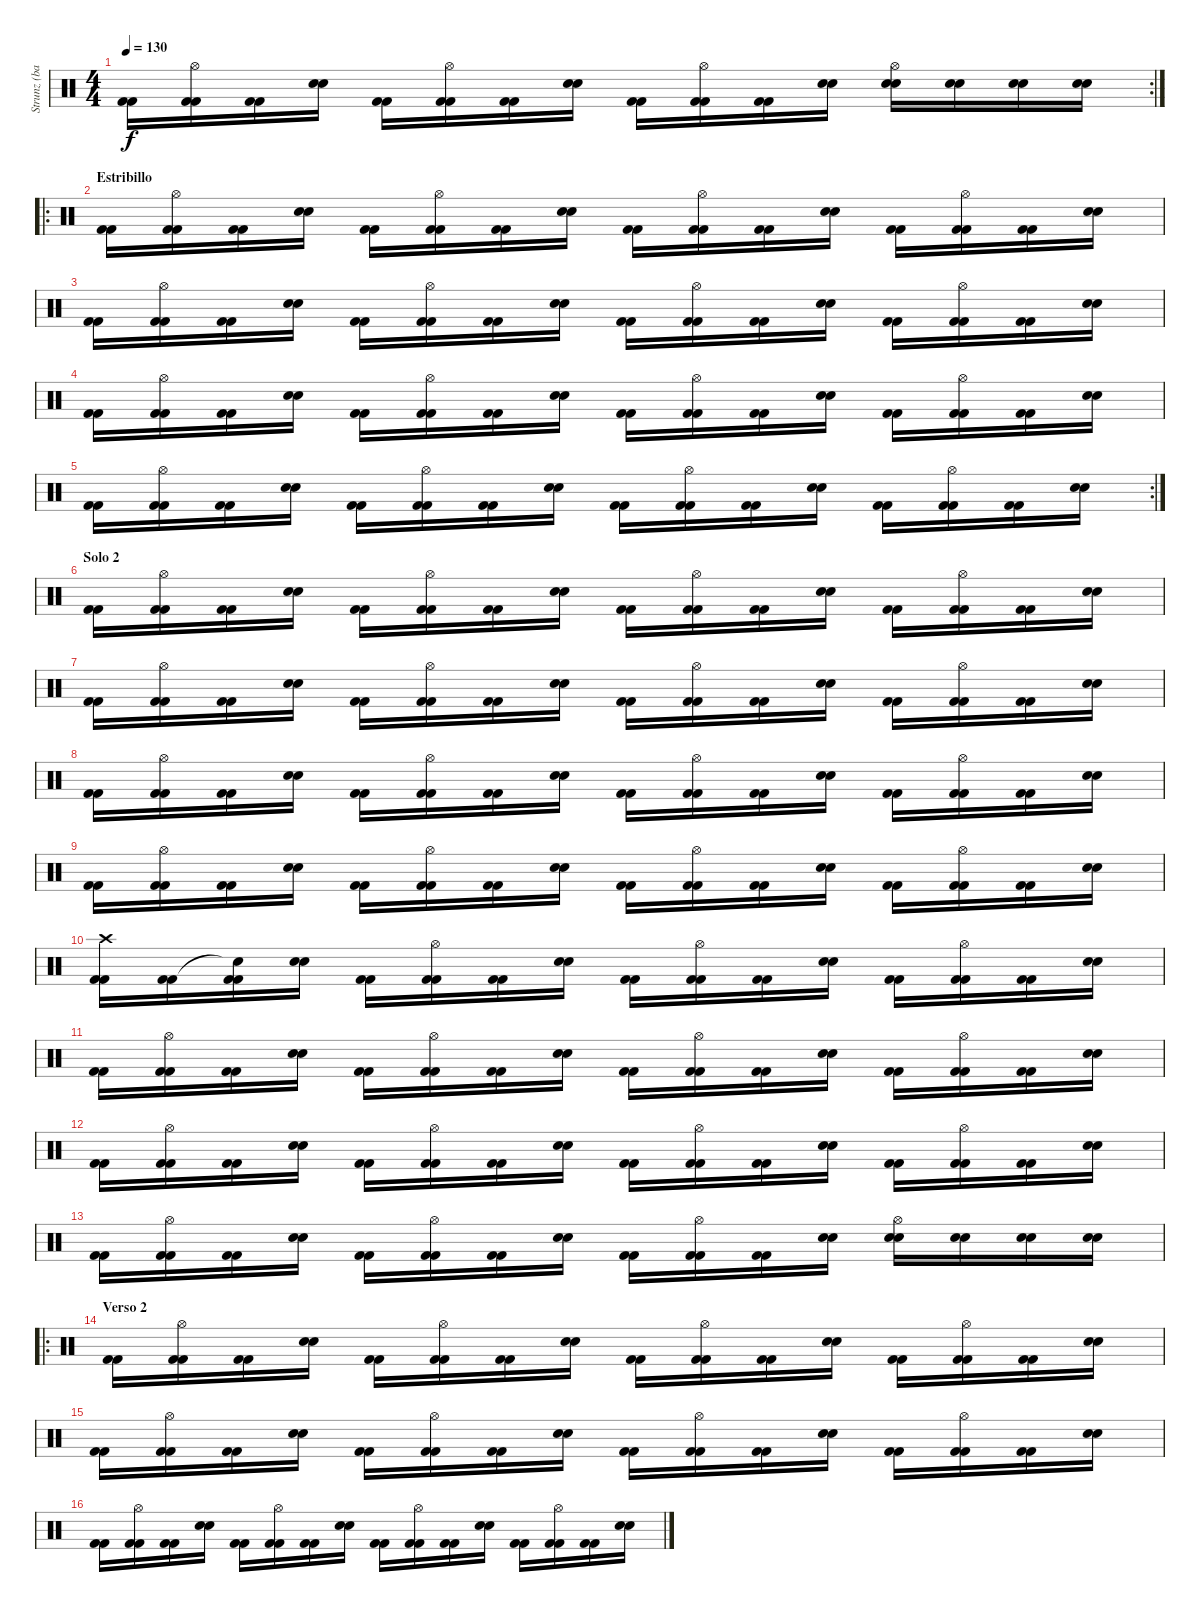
\track ("Strunz (bateria)" "Strunz (ba") {instrument percussion}
\staff {score}
\articulation defaults
\rc 2
\ts (4 4)
\tempo 130
\clef neutral
\ks c
("Kick (hit) 2" "Kick (hit) 2").16{dy f} ("Hi-Hat (open)" "Kick (hit) 2" "Kick (hit) 2").16 ("Kick (hit) 2" "Kick (hit) 2").16 ("Snare (hit) 2" "Snare (hit) 2").16 ("Kick (hit) 2" "Kick (hit) 2").16 ("Hi-Hat (open)" "Kick (hit) 2" "Kick (hit) 2").16 ("Kick (hit) 2" "Kick (hit) 2").16 ("Snare (hit) 2" "Snare (hit) 2").16 ("Kick (hit) 2" "Kick (hit) 2").16 ("Hi-Hat (open)" "Kick (hit) 2" "Kick (hit) 2").16 ("Kick (hit) 2" "Kick (hit) 2").16 ("Snare (hit) 2" "Snare (hit) 2").16 ("Hi-Hat (open)" "Snare (hit) 2" "Snare (hit) 2").16 ("Snare (hit) 2" "Snare (hit) 2").16 ("Snare (hit) 2" "Snare (hit) 2").16 ("Snare (hit) 2" "Snare (hit) 2").16 |
\ro
\section ("" "Estribillo")
("Kick (hit) 2" "Kick (hit) 2").16 ("Hi-Hat (open)" "Kick (hit) 2" "Kick (hit) 2").16 ("Kick (hit) 2" "Kick (hit) 2").16 ("Snare (hit) 2" "Snare (hit) 2").16 ("Kick (hit) 2" "Kick (hit) 2").16 ("Hi-Hat (open)" "Kick (hit) 2" "Kick (hit) 2").16 ("Kick (hit) 2" "Kick (hit) 2").16 ("Snare (hit) 2" "Snare (hit) 2").16 ("Kick (hit) 2" "Kick (hit) 2").16 ("Hi-Hat (open)" "Kick (hit) 2" "Kick (hit) 2").16 ("Kick (hit) 2" "Kick (hit) 2").16 ("Snare (hit) 2" "Snare (hit) 2").16 ("Kick (hit) 2" "Kick (hit) 2").16 ("Hi-Hat (open)" "Kick (hit) 2" "Kick (hit) 2").16 ("Kick (hit) 2" "Kick (hit) 2").16 ("Snare (hit) 2" "Snare (hit) 2").16 |
("Kick (hit) 2" "Kick (hit) 2").16 ("Hi-Hat (open)" "Kick (hit) 2" "Kick (hit) 2").16 ("Kick (hit) 2" "Kick (hit) 2").16 ("Snare (hit) 2" "Snare (hit) 2").16 ("Kick (hit) 2" "Kick (hit) 2").16 ("Hi-Hat (open)" "Kick (hit) 2" "Kick (hit) 2").16 ("Kick (hit) 2" "Kick (hit) 2").16 ("Snare (hit) 2" "Snare (hit) 2").16 ("Kick (hit) 2" "Kick (hit) 2").16 ("Hi-Hat (open)" "Kick (hit) 2" "Kick (hit) 2").16 ("Kick (hit) 2" "Kick (hit) 2").16 ("Snare (hit) 2" "Snare (hit) 2").16 ("Kick (hit) 2" "Kick (hit) 2").16 ("Hi-Hat (open)" "Kick (hit) 2" "Kick (hit) 2").16 ("Kick (hit) 2" "Kick (hit) 2").16 ("Snare (hit) 2" "Snare (hit) 2").16 |
("Kick (hit) 2" "Kick (hit) 2").16 ("Hi-Hat (open)" "Kick (hit) 2" "Kick (hit) 2").16 ("Kick (hit) 2" "Kick (hit) 2").16 ("Snare (hit) 2" "Snare (hit) 2").16 ("Kick (hit) 2" "Kick (hit) 2").16 ("Hi-Hat (open)" "Kick (hit) 2" "Kick (hit) 2").16 ("Kick (hit) 2" "Kick (hit) 2").16 ("Snare (hit) 2" "Snare (hit) 2").16 ("Kick (hit) 2" "Kick (hit) 2").16 ("Hi-Hat (open)" "Kick (hit) 2" "Kick (hit) 2").16 ("Kick (hit) 2" "Kick (hit) 2").16 ("Snare (hit) 2" "Snare (hit) 2").16 ("Kick (hit) 2" "Kick (hit) 2").16 ("Hi-Hat (open)" "Kick (hit) 2" "Kick (hit) 2").16 ("Kick (hit) 2" "Kick (hit) 2").16 ("Snare (hit) 2" "Snare (hit) 2").16 |
\rc 2
("Kick (hit) 2" "Kick (hit) 2").16 ("Hi-Hat (open)" "Kick (hit) 2" "Kick (hit) 2").16 ("Kick (hit) 2" "Kick (hit) 2").16 ("Snare (hit) 2" "Snare (hit) 2").16 ("Kick (hit) 2" "Kick (hit) 2").16 ("Hi-Hat (open)" "Kick (hit) 2" "Kick (hit) 2").16 ("Kick (hit) 2" "Kick (hit) 2").16 ("Snare (hit) 2" "Snare (hit) 2").16 ("Kick (hit) 2" "Kick (hit) 2").16 ("Hi-Hat (open)" "Kick (hit) 2" "Kick (hit) 2").16 ("Kick (hit) 2" "Kick (hit) 2").16 ("Snare (hit) 2" "Snare (hit) 2").16 ("Kick (hit) 2" "Kick (hit) 2").16 ("Hi-Hat (open)" "Kick (hit) 2" "Kick (hit) 2").16 ("Kick (hit) 2" "Kick (hit) 2").16 ("Snare (hit) 2" "Snare (hit) 2").16 |
\section ("" "Solo 2")
("Kick (hit) 2" "Kick (hit) 2").16 ("Hi-Hat (open)" "Kick (hit) 2" "Kick (hit) 2").16 ("Kick (hit) 2" "Kick (hit) 2").16 ("Snare (hit) 2" "Snare (hit) 2").16 ("Kick (hit) 2" "Kick (hit) 2").16 ("Hi-Hat (open)" "Kick (hit) 2" "Kick (hit) 2").16 ("Kick (hit) 2" "Kick (hit) 2").16 ("Snare (hit) 2" "Snare (hit) 2").16 ("Kick (hit) 2" "Kick (hit) 2").16 ("Hi-Hat (open)" "Kick (hit) 2" "Kick (hit) 2").16 ("Kick (hit) 2" "Kick (hit) 2").16 ("Snare (hit) 2" "Snare (hit) 2").16 ("Kick (hit) 2" "Kick (hit) 2").16 ("Hi-Hat (open)" "Kick (hit) 2" "Kick (hit) 2").16 ("Kick (hit) 2" "Kick (hit) 2").16 ("Snare (hit) 2" "Snare (hit) 2").16 |
("Kick (hit) 2" "Kick (hit) 2").16 ("Hi-Hat (open)" "Kick (hit) 2" "Kick (hit) 2").16 ("Kick (hit) 2" "Kick (hit) 2").16 ("Snare (hit) 2" "Snare (hit) 2").16 ("Kick (hit) 2" "Kick (hit) 2").16 ("Hi-Hat (open)" "Kick (hit) 2" "Kick (hit) 2").16 ("Kick (hit) 2" "Kick (hit) 2").16 ("Snare (hit) 2" "Snare (hit) 2").16 ("Kick (hit) 2" "Kick (hit) 2").16 ("Hi-Hat (open)" "Kick (hit) 2" "Kick (hit) 2").16 ("Kick (hit) 2" "Kick (hit) 2").16 ("Snare (hit) 2" "Snare (hit) 2").16 ("Kick (hit) 2" "Kick (hit) 2").16 ("Hi-Hat (open)" "Kick (hit) 2" "Kick (hit) 2").16 ("Kick (hit) 2" "Kick (hit) 2").16 ("Snare (hit) 2" "Snare (hit) 2").16 |
("Kick (hit) 2" "Kick (hit) 2").16 ("Hi-Hat (open)" "Kick (hit) 2" "Kick (hit) 2").16 ("Kick (hit) 2" "Kick (hit) 2").16 ("Snare (hit) 2" "Snare (hit) 2").16 ("Kick (hit) 2" "Kick (hit) 2").16 ("Hi-Hat (open)" "Kick (hit) 2" "Kick (hit) 2").16 ("Kick (hit) 2" "Kick (hit) 2").16 ("Snare (hit) 2" "Snare (hit) 2").16 ("Kick (hit) 2" "Kick (hit) 2").16 ("Hi-Hat (open)" "Kick (hit) 2" "Kick (hit) 2").16 ("Kick (hit) 2" "Kick (hit) 2").16 ("Snare (hit) 2" "Snare (hit) 2").16 ("Kick (hit) 2" "Kick (hit) 2").16 ("Hi-Hat (open)" "Kick (hit) 2" "Kick (hit) 2").16 ("Kick (hit) 2" "Kick (hit) 2").16 ("Snare (hit) 2" "Snare (hit) 2").16 |
("Kick (hit) 2" "Kick (hit) 2").16 ("Hi-Hat (open)" "Kick (hit) 2" "Kick (hit) 2").16 ("Kick (hit) 2" "Kick (hit) 2").16 ("Snare (hit) 2" "Snare (hit) 2").16 ("Kick (hit) 2" "Kick (hit) 2").16 ("Hi-Hat (open)" "Kick (hit) 2" "Kick (hit) 2").16 ("Kick (hit) 2" "Kick (hit) 2").16 ("Snare (hit) 2" "Snare (hit) 2").16 ("Kick (hit) 2" "Kick (hit) 2").16 ("Hi-Hat (open)" "Kick (hit) 2" "Kick (hit) 2").16 ("Kick (hit) 2" "Kick (hit) 2").16 ("Snare (hit) 2" "Snare (hit) 2").16 ("Kick (hit) 2" "Kick (hit) 2").16 ("Hi-Hat (open)" "Kick (hit) 2" "Kick (hit) 2").16 ("Kick (hit) 2" "Kick (hit) 2").16 ("Snare (hit) 2" "Snare (hit) 2").16 |
("Crash high (hit)" "Kick (hit) 2" "Kick (hit) 2").16 ("Kick (hit) 2" "Kick (hit) 2").16 ("Snare (hit)"{t} "Kick (hit) 2" "Kick (hit) 2").16 ("Snare (hit) 2" "Snare (hit) 2").16 ("Kick (hit) 2" "Kick (hit) 2").16 ("Hi-Hat (open)" "Kick (hit) 2" "Kick (hit) 2").16 ("Kick (hit) 2" "Kick (hit) 2").16 ("Snare (hit) 2" "Snare (hit) 2").16 ("Kick (hit) 2" "Kick (hit) 2").16 ("Hi-Hat (open)" "Kick (hit) 2" "Kick (hit) 2").16 ("Kick (hit) 2" "Kick (hit) 2").16 ("Snare (hit) 2" "Snare (hit) 2").16 ("Kick (hit) 2" "Kick (hit) 2").16 ("Hi-Hat (open)" "Kick (hit) 2" "Kick (hit) 2").16 ("Kick (hit) 2" "Kick (hit) 2").16 ("Snare (hit) 2" "Snare (hit) 2").16 |
("Kick (hit) 2" "Kick (hit) 2").16 ("Hi-Hat (open)" "Kick (hit) 2" "Kick (hit) 2").16 ("Kick (hit) 2" "Kick (hit) 2").16 ("Snare (hit) 2" "Snare (hit) 2").16 ("Kick (hit) 2" "Kick (hit) 2").16 ("Hi-Hat (open)" "Kick (hit) 2" "Kick (hit) 2").16 ("Kick (hit) 2" "Kick (hit) 2").16 ("Snare (hit) 2" "Snare (hit) 2").16 ("Kick (hit) 2" "Kick (hit) 2").16 ("Hi-Hat (open)" "Kick (hit) 2" "Kick (hit) 2").16 ("Kick (hit) 2" "Kick (hit) 2").16 ("Snare (hit) 2" "Snare (hit) 2").16 ("Kick (hit) 2" "Kick (hit) 2").16 ("Hi-Hat (open)" "Kick (hit) 2" "Kick (hit) 2").16 ("Kick (hit) 2" "Kick (hit) 2").16 ("Snare (hit) 2" "Snare (hit) 2").16 |
("Kick (hit) 2" "Kick (hit) 2").16 ("Hi-Hat (open)" "Kick (hit) 2" "Kick (hit) 2").16 ("Kick (hit) 2" "Kick (hit) 2").16 ("Snare (hit) 2" "Snare (hit) 2").16 ("Kick (hit) 2" "Kick (hit) 2").16 ("Hi-Hat (open)" "Kick (hit) 2" "Kick (hit) 2").16 ("Kick (hit) 2" "Kick (hit) 2").16 ("Snare (hit) 2" "Snare (hit) 2").16 ("Kick (hit) 2" "Kick (hit) 2").16 ("Hi-Hat (open)" "Kick (hit) 2" "Kick (hit) 2").16 ("Kick (hit) 2" "Kick (hit) 2").16 ("Snare (hit) 2" "Snare (hit) 2").16 ("Kick (hit) 2" "Kick (hit) 2").16 ("Hi-Hat (open)" "Kick (hit) 2" "Kick (hit) 2").16 ("Kick (hit) 2" "Kick (hit) 2").16 ("Snare (hit) 2" "Snare (hit) 2").16 |
("Kick (hit) 2" "Kick (hit) 2").16 ("Hi-Hat (open)" "Kick (hit) 2" "Kick (hit) 2").16 ("Kick (hit) 2" "Kick (hit) 2").16 ("Snare (hit) 2" "Snare (hit) 2").16 ("Kick (hit) 2" "Kick (hit) 2").16 ("Hi-Hat (open)" "Kick (hit) 2" "Kick (hit) 2").16 ("Kick (hit) 2" "Kick (hit) 2").16 ("Snare (hit) 2" "Snare (hit) 2").16 ("Kick (hit) 2" "Kick (hit) 2").16 ("Hi-Hat (open)" "Kick (hit) 2" "Kick (hit) 2").16 ("Kick (hit) 2" "Kick (hit) 2").16 ("Snare (hit) 2" "Snare (hit) 2").16 ("Hi-Hat (open)" "Snare (hit) 2" "Snare (hit) 2").16 ("Snare (hit) 2" "Snare (hit) 2").16 ("Snare (hit) 2" "Snare (hit) 2").16 ("Snare (hit) 2" "Snare (hit) 2").16 |
\ro
\section ("" "Verso 2")
("Kick (hit) 2" "Kick (hit) 2").16 ("Hi-Hat (open)" "Kick (hit) 2" "Kick (hit) 2").16 ("Kick (hit) 2" "Kick (hit) 2").16 ("Snare (hit) 2" "Snare (hit) 2").16 ("Kick (hit) 2" "Kick (hit) 2").16 ("Hi-Hat (open)" "Kick (hit) 2" "Kick (hit) 2").16 ("Kick (hit) 2" "Kick (hit) 2").16 ("Snare (hit) 2" "Snare (hit) 2").16 ("Kick (hit) 2" "Kick (hit) 2").16 ("Hi-Hat (open)" "Kick (hit) 2" "Kick (hit) 2").16 ("Kick (hit) 2" "Kick (hit) 2").16 ("Snare (hit) 2" "Snare (hit) 2").16 ("Kick (hit) 2" "Kick (hit) 2").16 ("Hi-Hat (open)" "Kick (hit) 2" "Kick (hit) 2").16 ("Kick (hit) 2" "Kick (hit) 2").16 ("Snare (hit) 2" "Snare (hit) 2").16 |
("Kick (hit) 2" "Kick (hit) 2").16 ("Hi-Hat (open)" "Kick (hit) 2" "Kick (hit) 2").16 ("Kick (hit) 2" "Kick (hit) 2").16 ("Snare (hit) 2" "Snare (hit) 2").16 ("Kick (hit) 2" "Kick (hit) 2").16 ("Hi-Hat (open)" "Kick (hit) 2" "Kick (hit) 2").16 ("Kick (hit) 2" "Kick (hit) 2").16 ("Snare (hit) 2" "Snare (hit) 2").16 ("Kick (hit) 2" "Kick (hit) 2").16 ("Hi-Hat (open)" "Kick (hit) 2" "Kick (hit) 2").16 ("Kick (hit) 2" "Kick (hit) 2").16 ("Snare (hit) 2" "Snare (hit) 2").16 ("Kick (hit) 2" "Kick (hit) 2").16 ("Hi-Hat (open)" "Kick (hit) 2" "Kick (hit) 2").16 ("Kick (hit) 2" "Kick (hit) 2").16 ("Snare (hit) 2" "Snare (hit) 2").16 |
("Kick (hit) 2" "Kick (hit) 2").16 ("Hi-Hat (open)" "Kick (hit) 2" "Kick (hit) 2").16 ("Kick (hit) 2" "Kick (hit) 2").16 ("Snare (hit) 2" "Snare (hit) 2").16 ("Kick (hit) 2" "Kick (hit) 2").16 ("Hi-Hat (open)" "Kick (hit) 2" "Kick (hit) 2").16 ("Kick (hit) 2" "Kick (hit) 2").16 ("Snare (hit) 2" "Snare (hit) 2").16 ("Kick (hit) 2" "Kick (hit) 2").16 ("Hi-Hat (open)" "Kick (hit) 2" "Kick (hit) 2").16 ("Kick (hit) 2" "Kick (hit) 2").16 ("Snare (hit) 2" "Snare (hit) 2").16 ("Kick (hit) 2" "Kick (hit) 2").16 ("Hi-Hat (open)" "Kick (hit) 2" "Kick (hit) 2").16 ("Kick (hit) 2" "Kick (hit) 2").16 ("Snare (hit) 2" "Snare (hit) 2").16
